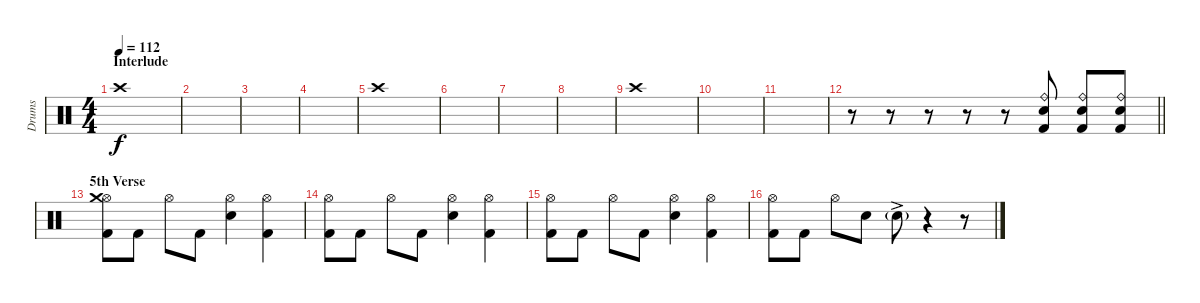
\track ("Drums" "Drums") {instrument percussion}
\staff {score}
\articulation defaults
\ts (4 4)
\section ("" "Interlude")
\tempo 112
\clef neutral
\ks c "Crash high (hit)".1{dy f}
|
|
|
|
"Crash high (hit)".1 |
|
|
|
"Crash high (hit)".1 |
|
|
\barLineRight lightlight
r.8 r.8 r.8 r.8 r.8 ("Electric Snare (hit)" "Ride (bell)" "Kick (hit) 2").8 ("Electric Snare (hit)" "Ride (bell)" "Kick (hit) 2").8 ("Electric Snare (hit)" "Ride (bell)" "Kick (hit) 2").8 |
\section ("" "5th Verse")
("Kick (hit) 2" "Hi-Hat (open)" "Crash medium (hit)").8 "Kick (hit) 2".8 "Hi-Hat (open)".8 "Kick (hit) 2".8 ("Electric Snare (hit)" "Hi-Hat (open)").4 ("Kick (hit) 2" "Hi-Hat (open)").4 |
("Kick (hit) 2" "Hi-Hat (open)").8 "Kick (hit) 2".8 "Hi-Hat (open)".8 "Kick (hit) 2".8 ("Electric Snare (hit)" "Hi-Hat (open)").4 ("Kick (hit) 2" "Hi-Hat (open)").4 |
("Kick (hit) 2" "Hi-Hat (open)").8 "Kick (hit) 2".8 "Hi-Hat (open)".8 "Kick (hit) 2".8 ("Electric Snare (hit)" "Hi-Hat (open)").4 ("Kick (hit) 2" "Hi-Hat (open)").4 |
("Kick (hit) 2" "Hi-Hat (open)").8 "Kick (hit) 2".8 "Hi-Hat (open)".8 "Metronome (bell)".8 "Snare (hit)"{g ac}.8 r.4 r.8
